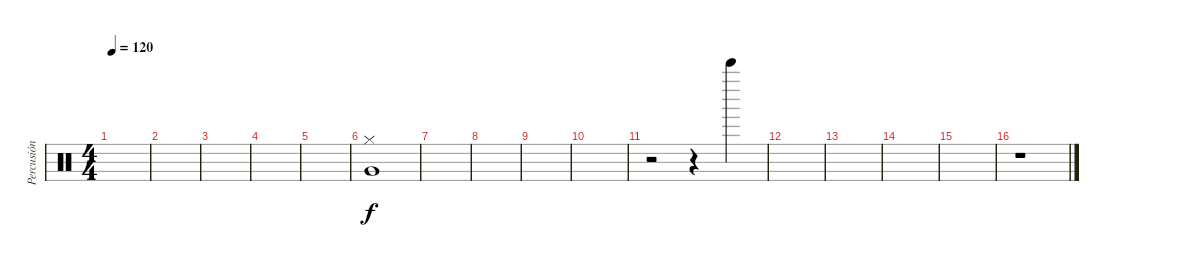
\track ("Percusión" "Percusión") {instrument percussion}
\staff {score}
\articulation defaults
\ts (4 4)
\tempo 120
\clef neutral
\ks c
|
|
|
|
|
("Very Low Tom (hit)" "Hi-Hat (closed)").1 |
|
|
|
|
r.2 r.4 "Bell Tree (hit)".4 |
|
|
|
|
r.1
